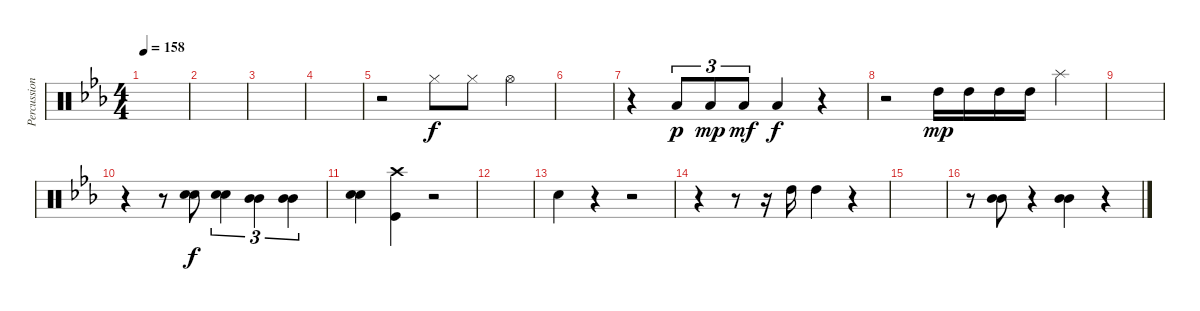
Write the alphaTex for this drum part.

\track ("Percussion" "Percussion") {instrument percussion}
\staff {score}
\articulation defaults
\ts (4 4)
\tempo 158
\clef neutral
\ks eb
|
|
|
|
r.2 "Hi-Hat (closed)".8 "Hi-Hat (closed)".8 "Hi-Hat (open)".4 |
|
r.4 "Low Tom (hit)".8{tu (3 2) dy p} "Low Tom (hit)".8{tu (3 2) dy mp} "Low Tom (hit)".8{tu (3 2) dy mf} "Low Tom (hit)".4{dy f} r.4 |
r.2 "High Tom (hit)".16{dy mp} "High Tom (hit)".16 "High Tom (hit)".16 "High Tom (hit)".16 "Splash (hit)".4 |
|
r.4 r.8 ("Snare (hit) 2" "Snare (hit) 2").8{dy f} ("Snare (hit) 2" "Snare (hit) 2").4{tu (3 2)} ("Mid Tom (hit)" "Mid Tom (hit)").4{tu (3 2)} ("Mid Tom (hit)" "Mid Tom (hit)").4{tu (3 2)} |
("Snare (hit) 2" "Snare (hit) 2").4 ("Crash high (hit)" "Kick (hit)").4 r.2 |
|
"Snare (hit) 2".4 r.4 r.2 |
r.4 r.8 r.16 "High Tom (hit)".16 "High Tom (hit)".4 r.4 |
|
r.8 ("Mid Tom (hit)" "Mid Tom (hit)").8 r.4 ("Mid Tom (hit)" "Mid Tom (hit)").4 r.4
